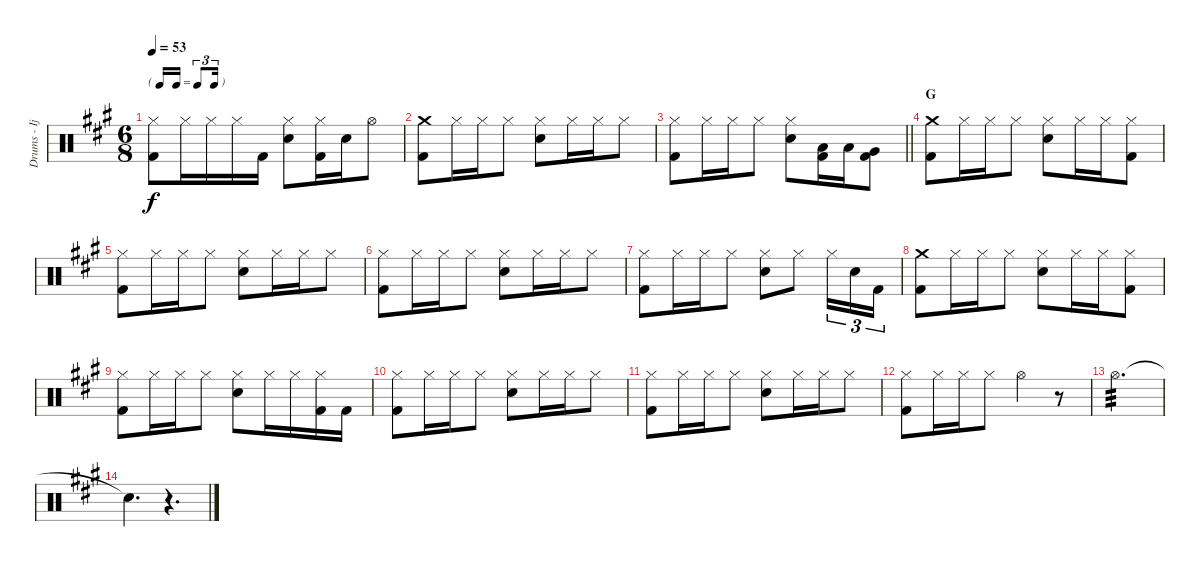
\track ("Drums - Ijichi Kiyoshi" "Drums - Ij") {instrument percussion}
\staff {score}
\articulation defaults
\ts (6 8)
\tf triplet16th
\tempo 53
\clef neutral
\ks a
("Hi-Hat (closed)" "Kick (hit) 2").8{dy f} "Hi-Hat (closed)".16 "Hi-Hat (closed)".16 "Hi-Hat (closed)".16 "Kick (hit) 2".16 ("Hi-Hat (closed)" "Electric Snare (hit)").8 ("Hi-Hat (closed)" "Kick (hit) 2").16 "Electric Snare (hit)".16 "Hi-Hat (open)".8 |
("Crash medium (hit)" "Kick (hit) 2").8 "Hi-Hat (closed)".16 "Hi-Hat (closed)".16 "Hi-Hat (closed)".8 ("Hi-Hat (closed)" "Electric Snare (hit)").8 "Hi-Hat (closed)".16 "Hi-Hat (closed)".16 "Hi-Hat (closed)".8 |
\barLineRight lightlight
("Hi-Hat (closed)" "Kick (hit) 2").8 "Hi-Hat (closed)".16 "Hi-Hat (closed)".16 "Hi-Hat (closed)".8 ("Hi-Hat (closed)" "Electric Snare (hit)").8 ("Low Tom (hit)" "Kick (hit) 2").16 "Low Tom (hit)".16 ("Very Low Tom (hit)" "Kick (hit) 2").8 |
\section ("" "G")
("Crash medium (hit)" "Kick (hit) 2").8 "Hi-Hat (closed)".16 "Hi-Hat (closed)".16 "Hi-Hat (closed)".8 ("Hi-Hat (closed)" "Electric Snare (hit)").8 "Hi-Hat (closed)".16 "Hi-Hat (closed)".16 ("Hi-Hat (closed)" "Kick (hit) 2").8 |
("Hi-Hat (closed)" "Kick (hit) 2").8 "Hi-Hat (closed)".16 "Hi-Hat (closed)".16 "Hi-Hat (closed)".8 ("Hi-Hat (closed)" "Electric Snare (hit)").8 "Hi-Hat (closed)".16 "Hi-Hat (closed)".16 "Hi-Hat (closed)".8 |
("Hi-Hat (closed)" "Kick (hit) 2").8 "Hi-Hat (closed)".16 "Hi-Hat (closed)".16 "Hi-Hat (closed)".8 ("Hi-Hat (closed)" "Electric Snare (hit)").8 "Hi-Hat (closed)".16 "Hi-Hat (closed)".16 "Hi-Hat (closed)".8 |
("Hi-Hat (closed)" "Kick (hit) 2").8 "Hi-Hat (closed)".16 "Hi-Hat (closed)".16 "Hi-Hat (closed)".8 ("Hi-Hat (closed)" "Electric Snare (hit)").8 "Hi-Hat (closed)".8 "Hi-Hat (closed)".16{tu (3 2)} "Electric Snare (hit)".16{tu (3 2)} "Kick (hit) 2".16{tu (3 2)} |
("Crash medium (hit)" "Kick (hit) 2").8 "Hi-Hat (closed)".16 "Hi-Hat (closed)".16 "Hi-Hat (closed)".8 ("Hi-Hat (closed)" "Electric Snare (hit)").8 "Hi-Hat (closed)".16 "Hi-Hat (closed)".16 ("Hi-Hat (closed)" "Kick (hit) 2").8 |
("Hi-Hat (closed)" "Kick (hit) 2").8 "Hi-Hat (closed)".16 "Hi-Hat (closed)".16 "Hi-Hat (closed)".8 ("Hi-Hat (closed)" "Electric Snare (hit)").8 "Hi-Hat (closed)".16 "Hi-Hat (closed)".16 ("Hi-Hat (closed)" "Kick (hit) 2").16 "Kick (hit) 2".16 |
("Hi-Hat (closed)" "Kick (hit) 2").8 "Hi-Hat (closed)".16 "Hi-Hat (closed)".16 "Hi-Hat (closed)".8 ("Hi-Hat (closed)" "Electric Snare (hit)").8 "Hi-Hat (closed)".16 "Hi-Hat (closed)".16 "Hi-Hat (closed)".8 |
("Hi-Hat (closed)" "Kick (hit) 2").8 "Hi-Hat (closed)".16 "Hi-Hat (closed)".16 "Hi-Hat (closed)".8 ("Hi-Hat (closed)" "Electric Snare (hit)").8 "Hi-Hat (closed)".16 "Hi-Hat (closed)".16 "Hi-Hat (closed)".8 |
("Hi-Hat (closed)" "Kick (hit) 2").8 "Hi-Hat (closed)".16 "Hi-Hat (closed)".16 "Hi-Hat (closed)".8 "Hi-Hat (open)".4 r.8{volume 3} |
"Hi-Hat (open)".2{d tp 3 volume 13} |
"Snare (hit)"{t}.4{d volume 3} r.4{d}
